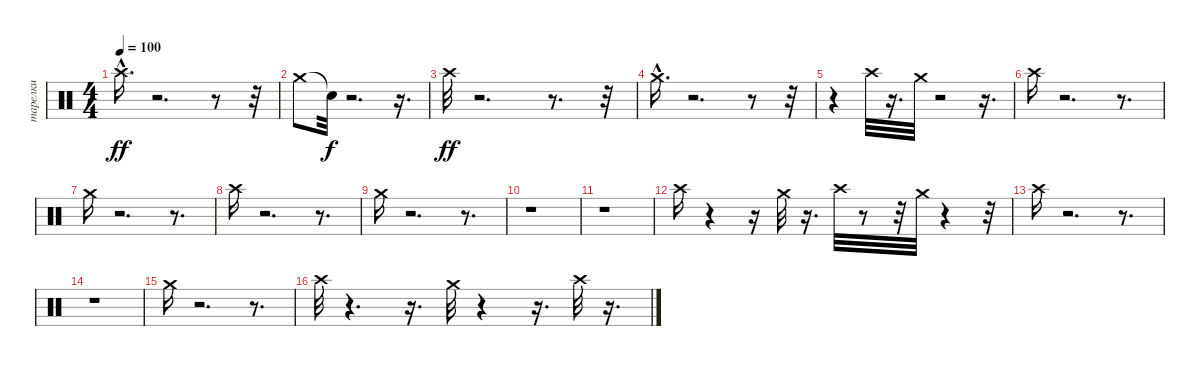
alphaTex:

\track ("тарелки" "тарелки") {instrument percussion}
\staff {score}
\articulation defaults
\ts (4 4)
\tempo 100
\clef neutral
\ks c "Crash high (hit)"{hac}.16{d dy ff}
r.2{d} r.8 r.32 |
"Crash medium (hit)".8 "Snare (hit)"{t}.32{dy f} r.2{d} r.16{d} |
"Crash high (hit)".32{dy ff} r.2{d} r.8{d} r.32 |
"Crash medium (hit)"{hac}.16{d} r.2{d} r.8 r.32 |
r.4 "Crash high (hit)".32 r.16{d} "Crash medium (hit)".32 r.2 r.16{d} |
"Crash high (hit)".16 r.2{d} r.8{d} |
"Crash medium (hit)".16 r.2{d} r.8{d} |
"Crash high (hit)".16 r.2{d} r.8{d} |
"Crash medium (hit)".16 r.2{d} r.8{d} |
r.1 |
r.1 |
"Crash high (hit)".16 r.4 r.16 "Crash medium (hit)".32 r.16{d} "Crash high (hit)".32 r.8 r.32 "Crash medium (hit)".32 r.4 r.32 |
"Crash high (hit)".16 r.2{d} r.8{d} |
r.1 |
"Crash medium (hit)".16 r.2{d} r.8{d} |
"Crash high (hit)".32 r.4{d} r.16{d} "Crash medium (hit)".32 r.4 r.16{d} "Crash high (hit)".32 r.16{d}
